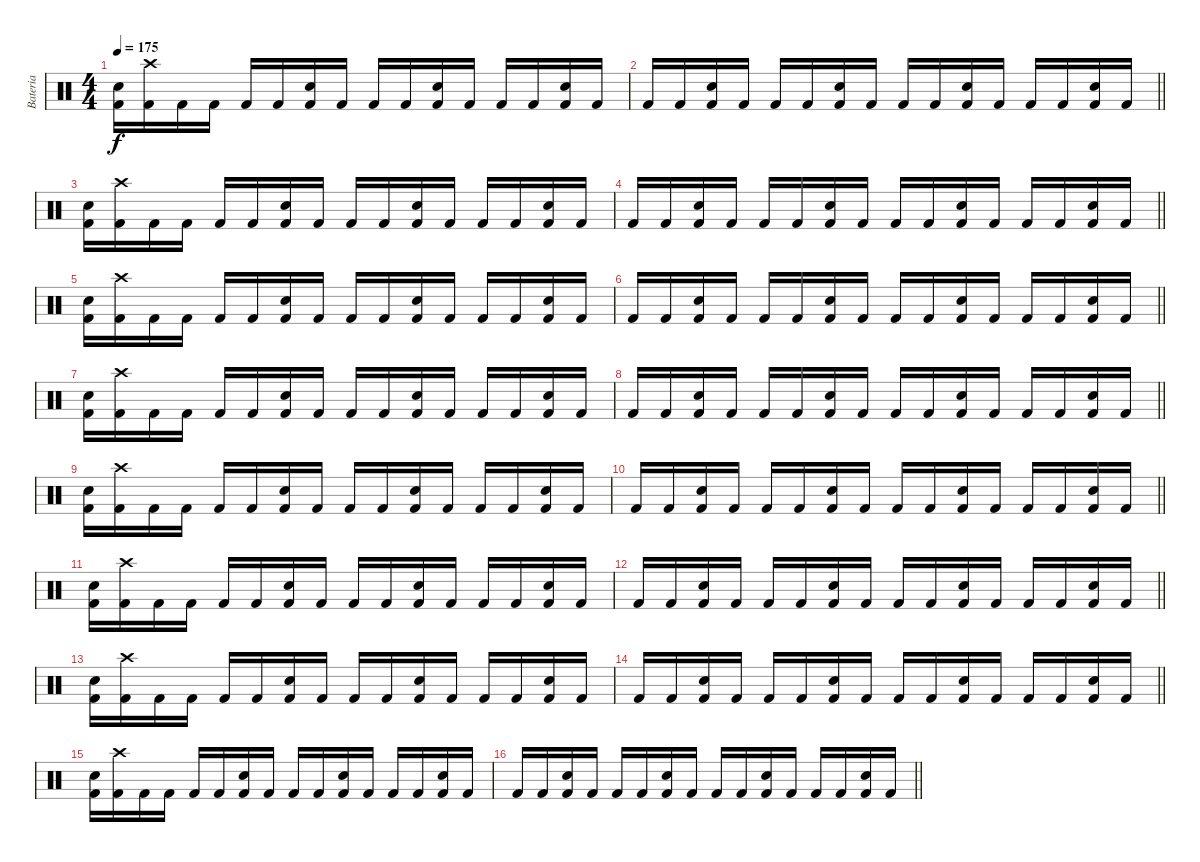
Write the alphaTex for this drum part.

\track ("Bateria" "Bateria") {instrument percussion}
\staff {score}
\articulation defaults
\ts (4 4)
\tempo 175
\clef neutral
\ks c
("Snare (hit) 2" "Kick (hit) 2").16{dy f} ("Crash high (hit)" "Kick (hit) 2").16 "Kick (hit) 2".16 "Kick (hit) 2".16 "Kick (hit) 2".16 "Kick (hit) 2".16 ("Snare (hit) 2" "Kick (hit) 2").16 "Kick (hit) 2".16 "Kick (hit) 2".16 "Kick (hit) 2".16 ("Snare (hit) 2" "Kick (hit) 2").16 "Kick (hit) 2".16 "Kick (hit) 2".16 "Kick (hit) 2".16 ("Snare (hit) 2" "Kick (hit) 2").16 "Kick (hit) 2".16 |
\barLineRight lightlight "Kick (hit) 2".16 "Kick (hit) 2".16
("Snare (hit) 2" "Kick (hit) 2").16 "Kick (hit) 2".16 "Kick (hit) 2".16 "Kick (hit) 2".16 ("Snare (hit) 2" "Kick (hit) 2").16 "Kick (hit) 2".16 "Kick (hit) 2".16 "Kick (hit) 2".16 ("Snare (hit) 2" "Kick (hit) 2").16 "Kick (hit) 2".16 "Kick (hit) 2".16 "Kick (hit) 2".16 ("Snare (hit) 2" "Kick (hit) 2").16 "Kick (hit) 2".16 |
("Snare (hit) 2" "Kick (hit) 2").16 ("Crash high (hit)" "Kick (hit) 2").16 "Kick (hit) 2".16 "Kick (hit) 2".16 "Kick (hit) 2".16 "Kick (hit) 2".16 ("Snare (hit) 2" "Kick (hit) 2").16 "Kick (hit) 2".16 "Kick (hit) 2".16 "Kick (hit) 2".16 ("Snare (hit) 2" "Kick (hit) 2").16 "Kick (hit) 2".16 "Kick (hit) 2".16 "Kick (hit) 2".16 ("Snare (hit) 2" "Kick (hit) 2").16 "Kick (hit) 2".16 |
\barLineRight lightlight "Kick (hit) 2".16 "Kick (hit) 2".16
("Snare (hit) 2" "Kick (hit) 2").16 "Kick (hit) 2".16 "Kick (hit) 2".16 "Kick (hit) 2".16 ("Snare (hit) 2" "Kick (hit) 2").16 "Kick (hit) 2".16 "Kick (hit) 2".16 "Kick (hit) 2".16 ("Snare (hit) 2" "Kick (hit) 2").16 "Kick (hit) 2".16 "Kick (hit) 2".16 "Kick (hit) 2".16 ("Snare (hit) 2" "Kick (hit) 2").16 "Kick (hit) 2".16 |
("Snare (hit) 2" "Kick (hit) 2").16 ("Crash high (hit)" "Kick (hit) 2").16 "Kick (hit) 2".16 "Kick (hit) 2".16 "Kick (hit) 2".16 "Kick (hit) 2".16 ("Snare (hit) 2" "Kick (hit) 2").16 "Kick (hit) 2".16 "Kick (hit) 2".16 "Kick (hit) 2".16 ("Snare (hit) 2" "Kick (hit) 2").16 "Kick (hit) 2".16 "Kick (hit) 2".16 "Kick (hit) 2".16 ("Snare (hit) 2" "Kick (hit) 2").16 "Kick (hit) 2".16 |
\barLineRight lightlight "Kick (hit) 2".16 "Kick (hit) 2".16
("Snare (hit) 2" "Kick (hit) 2").16 "Kick (hit) 2".16 "Kick (hit) 2".16 "Kick (hit) 2".16 ("Snare (hit) 2" "Kick (hit) 2").16 "Kick (hit) 2".16 "Kick (hit) 2".16 "Kick (hit) 2".16 ("Snare (hit) 2" "Kick (hit) 2").16 "Kick (hit) 2".16 "Kick (hit) 2".16 "Kick (hit) 2".16 ("Snare (hit) 2" "Kick (hit) 2").16 "Kick (hit) 2".16 |
("Snare (hit) 2" "Kick (hit) 2").16 ("Crash high (hit)" "Kick (hit) 2").16 "Kick (hit) 2".16 "Kick (hit) 2".16 "Kick (hit) 2".16 "Kick (hit) 2".16 ("Snare (hit) 2" "Kick (hit) 2").16 "Kick (hit) 2".16 "Kick (hit) 2".16 "Kick (hit) 2".16 ("Snare (hit) 2" "Kick (hit) 2").16 "Kick (hit) 2".16 "Kick (hit) 2".16 "Kick (hit) 2".16 ("Snare (hit) 2" "Kick (hit) 2").16 "Kick (hit) 2".16 |
\barLineRight lightlight "Kick (hit) 2".16 "Kick (hit) 2".16
("Snare (hit) 2" "Kick (hit) 2").16 "Kick (hit) 2".16 "Kick (hit) 2".16 "Kick (hit) 2".16 ("Snare (hit) 2" "Kick (hit) 2").16 "Kick (hit) 2".16 "Kick (hit) 2".16 "Kick (hit) 2".16 ("Snare (hit) 2" "Kick (hit) 2").16 "Kick (hit) 2".16 "Kick (hit) 2".16 "Kick (hit) 2".16 ("Snare (hit) 2" "Kick (hit) 2").16 "Kick (hit) 2".16 |
("Snare (hit) 2" "Kick (hit) 2").16 ("Crash high (hit)" "Kick (hit) 2").16 "Kick (hit) 2".16 "Kick (hit) 2".16 "Kick (hit) 2".16 "Kick (hit) 2".16 ("Snare (hit) 2" "Kick (hit) 2").16 "Kick (hit) 2".16 "Kick (hit) 2".16 "Kick (hit) 2".16 ("Snare (hit) 2" "Kick (hit) 2").16 "Kick (hit) 2".16 "Kick (hit) 2".16 "Kick (hit) 2".16 ("Snare (hit) 2" "Kick (hit) 2").16 "Kick (hit) 2".16 |
\barLineRight lightlight "Kick (hit) 2".16 "Kick (hit) 2".16
("Snare (hit) 2" "Kick (hit) 2").16 "Kick (hit) 2".16 "Kick (hit) 2".16 "Kick (hit) 2".16 ("Snare (hit) 2" "Kick (hit) 2").16 "Kick (hit) 2".16 "Kick (hit) 2".16 "Kick (hit) 2".16 ("Snare (hit) 2" "Kick (hit) 2").16 "Kick (hit) 2".16 "Kick (hit) 2".16 "Kick (hit) 2".16 ("Snare (hit) 2" "Kick (hit) 2").16 "Kick (hit) 2".16 |
("Snare (hit) 2" "Kick (hit) 2").16 ("Crash high (hit)" "Kick (hit) 2").16 "Kick (hit) 2".16 "Kick (hit) 2".16 "Kick (hit) 2".16 "Kick (hit) 2".16 ("Snare (hit) 2" "Kick (hit) 2").16 "Kick (hit) 2".16 "Kick (hit) 2".16 "Kick (hit) 2".16 ("Snare (hit) 2" "Kick (hit) 2").16 "Kick (hit) 2".16 "Kick (hit) 2".16 "Kick (hit) 2".16 ("Snare (hit) 2" "Kick (hit) 2").16 "Kick (hit) 2".16 |
\barLineRight lightlight "Kick (hit) 2".16 "Kick (hit) 2".16
("Snare (hit) 2" "Kick (hit) 2").16 "Kick (hit) 2".16 "Kick (hit) 2".16 "Kick (hit) 2".16 ("Snare (hit) 2" "Kick (hit) 2").16 "Kick (hit) 2".16 "Kick (hit) 2".16 "Kick (hit) 2".16 ("Snare (hit) 2" "Kick (hit) 2").16 "Kick (hit) 2".16 "Kick (hit) 2".16 "Kick (hit) 2".16 ("Snare (hit) 2" "Kick (hit) 2").16 "Kick (hit) 2".16 |
("Snare (hit) 2" "Kick (hit) 2").16 ("Crash high (hit)" "Kick (hit) 2").16 "Kick (hit) 2".16 "Kick (hit) 2".16 "Kick (hit) 2".16 "Kick (hit) 2".16 ("Snare (hit) 2" "Kick (hit) 2").16 "Kick (hit) 2".16 "Kick (hit) 2".16 "Kick (hit) 2".16 ("Snare (hit) 2" "Kick (hit) 2").16 "Kick (hit) 2".16 "Kick (hit) 2".16 "Kick (hit) 2".16 ("Snare (hit) 2" "Kick (hit) 2").16 "Kick (hit) 2".16 |
\barLineRight lightlight "Kick (hit) 2".16 "Kick (hit) 2".16
("Snare (hit) 2" "Kick (hit) 2").16 "Kick (hit) 2".16 "Kick (hit) 2".16 "Kick (hit) 2".16 ("Snare (hit) 2" "Kick (hit) 2").16 "Kick (hit) 2".16 "Kick (hit) 2".16 "Kick (hit) 2".16 ("Snare (hit) 2" "Kick (hit) 2").16 "Kick (hit) 2".16 "Kick (hit) 2".16 "Kick (hit) 2".16 ("Snare (hit) 2" "Kick (hit) 2").16 "Kick (hit) 2".16 |
("Snare (hit) 2" "Kick (hit) 2").16 ("Crash high (hit)" "Kick (hit) 2").16 "Kick (hit) 2".16 "Kick (hit) 2".16 "Kick (hit) 2".16 "Kick (hit) 2".16 ("Snare (hit) 2" "Kick (hit) 2").16 "Kick (hit) 2".16 "Kick (hit) 2".16 "Kick (hit) 2".16 ("Snare (hit) 2" "Kick (hit) 2").16 "Kick (hit) 2".16 "Kick (hit) 2".16 "Kick (hit) 2".16 ("Snare (hit) 2" "Kick (hit) 2").16 "Kick (hit) 2".16 |
\barLineRight lightlight "Kick (hit) 2".16 "Kick (hit) 2".16
("Snare (hit) 2" "Kick (hit) 2").16 "Kick (hit) 2".16 "Kick (hit) 2".16 "Kick (hit) 2".16 ("Snare (hit) 2" "Kick (hit) 2").16 "Kick (hit) 2".16 "Kick (hit) 2".16 "Kick (hit) 2".16 ("Snare (hit) 2" "Kick (hit) 2").16 "Kick (hit) 2".16 "Kick (hit) 2".16 "Kick (hit) 2".16 ("Snare (hit) 2" "Kick (hit) 2").16 "Kick (hit) 2".16
